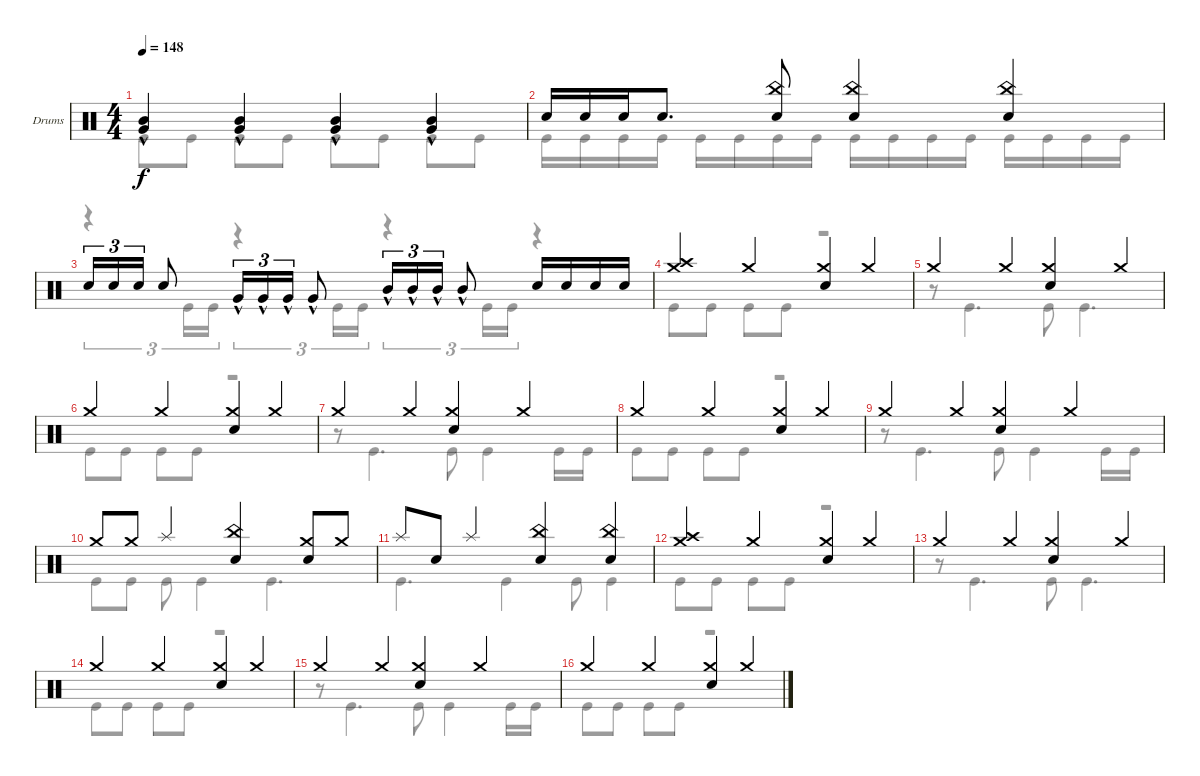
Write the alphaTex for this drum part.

\defaultSystemsLayout 4
\bracketExtendMode groupsimilarinstruments
\firstSystemTrackNameOrientation horizontal
\otherSystemsTrackNameOrientation horizontal
\track ("Drumkit" "Drums") {instrument percussion}
\staff {score}
\articulation defaults
\voice
\ts (4 4)
\tempo 148
\clef neutral
\scale
1.02648
\ks c
("Mid Tom (hit)"{hac} "Very Low Tom (hit)"{hac}).4{dy f} ("Mid Tom (hit)"{hac} "Very Low Tom (hit)"{hac}).4 ("Mid Tom (hit)"{hac} "Very Low Tom (hit)"{hac}).4 ("Mid Tom (hit)"{hac} "Very Low Tom (hit)"{hac}).4 |
\scale
0.973518 "Snare (hit) 2".16 "Snare (hit) 2".16 "Snare (hit) 2".16 "Snare (hit) 2".8{d} ("Snare (hit) 2" "China (hit)").8 ("Snare (hit) 2" "China (hit)").4 ("China (hit)" "Snare (hit) 2").4 |
\scale
1.02648 "Snare (hit) 2".16{tu (3 2)} "Snare (hit) 2".16{tu (3 2)} "Snare (hit) 2".16{tu (3 2)} "Snare (hit) 2".8 "Very Low Tom (hit)"{hac}.16{tu (3 2)} "Very Low Tom (hit)"{hac}.16{tu (3 2)} "Very Low Tom (hit)"{hac}.16{tu (3 2)} "Very Low Tom (hit)"{hac}.8 "Mid Tom (hit)"{hac}.16{tu (3 2)} "Mid Tom (hit)"{hac}.16{tu (3 2)} "Mid Tom (hit)"{hac}.16{tu (3 2)} "Mid Tom (hit)"{hac}.8 "Snare (hit) 2".16 "Snare (hit) 2".16 "Snare (hit) 2".16 "Snare (hit) 2".16 |
\scale
0.973518 ("Crash medium (hit)" "Crash high (hit)").4 "Crash medium (hit)".4 ("Crash medium (hit)" "Snare (hit) 2").4 "Crash medium (hit)".4 |
\scale
1.02648 "Crash medium (hit)".4 "Crash medium (hit)".4 ("Crash medium (hit)" "Snare (hit) 2").4 "Crash medium (hit)".4 |
\scale
0.973518 "Crash medium (hit)".4 "Crash medium (hit)".4 ("Crash medium (hit)" "Snare (hit) 2").4 "Crash medium (hit)".4 |
\scale
1.02648 "Crash medium (hit)".4 "Crash medium (hit)".4 ("Crash medium (hit)" "Snare (hit) 2").4 "Crash medium (hit)".4 |
\scale
0.973518 "Crash medium (hit)".4 "Crash medium (hit)".4 ("Crash medium (hit)" "Snare (hit) 2").4 "Crash medium (hit)".4 |
\scale
1.02648 "Crash medium (hit)".4 "Crash medium (hit)".4 ("Crash medium (hit)" "Snare (hit) 2").4 "Crash medium (hit)".4 |
\scale
0.973518 "Crash medium (hit)".8 "Crash medium (hit)".8 "Splash (hit)".4 ("Snare (hit) 2" "China (hit)").4 ("Crash medium (hit)" "Snare (hit) 2").8 "Crash medium (hit)".8 |
\scale
1.02648 "Splash (hit)".8 "Snare (hit) 2".8 "Splash (hit)".4 ("Snare (hit) 2" "China (hit)").4 ("Snare (hit) 2" "China (hit)").4 |
\scale
0.973518 ("Crash medium (hit)" "Crash high (hit)").4 "Crash medium (hit)".4 ("Crash medium (hit)" "Snare (hit) 2").4 "Crash medium (hit)".4 |
\scale
1.02648 "Crash medium (hit)".4 "Crash medium (hit)".4 ("Crash medium (hit)" "Snare (hit) 2").4 "Crash medium (hit)".4 |
\scale
0.973518 "Crash medium (hit)".4 "Crash medium (hit)".4 ("Crash medium (hit)" "Snare (hit) 2").4 "Crash medium (hit)".4 |
\scale
1.02648 "Crash medium (hit)".4 "Crash medium (hit)".4 ("Crash medium (hit)" "Snare (hit) 2").4 "Crash medium (hit)".4 |
\scale
0.973518 "Crash medium (hit)".4 "Crash medium (hit)".4 ("Crash medium (hit)" "Snare (hit) 2").4 "Crash medium (hit)".4
\voice
\clef neutral
\ottava regular
\simile none
\scale
1.02648
\ks c "Kick (hit)".8{dy f} "Kick (hit)".8 "Kick (hit)".8 "Kick (hit)".8 "Kick (hit)".8 "Kick (hit)".8 "Kick (hit)".8 "Kick (hit)".8
|
\scale
0.973518 "Kick (hit)".16 "Kick (hit)".16 "Kick (hit)".16 "Kick (hit)".16 "Kick (hit)".16 "Kick (hit)".16 "Kick (hit)".16 "Kick (hit)".16 "Kick (hit)".16 "Kick (hit)".16 "Kick (hit)".16 "Kick (hit)".16 "Kick (hit)".16 "Kick (hit)".16 "Kick (hit)".16 "Kick (hit)".16 |
\scale
1.02648 r.4{tu (3 2)} "Kick (hit)".16{tu (3 2)} "Kick (hit)".16{tu (3 2)} r.4{tu (3 2)} "Kick (hit)".16{tu (3 2)} "Kick (hit)".16{tu (3 2)} r.4{tu (3 2)} "Kick (hit)".16{tu (3 2)} "Kick (hit)".16{tu (3 2)} r.4 |
\scale
0.973518 "Kick (hit)".8 "Kick (hit)".8 "Kick (hit)".8 "Kick (hit)".8 r.2 |
\scale
1.02648 r.8 "Kick (hit)".4{d} "Kick (hit)".8 "Kick (hit)".4{d} |
\scale
0.973518 "Kick (hit)".8 "Kick (hit)".8 "Kick (hit)".8 "Kick (hit)".8 r.2 |
\scale
1.02648 r.8 "Kick (hit)".4{d} "Kick (hit)".8 "Kick (hit)".4 "Kick (hit)".16 "Kick (hit)".16 |
\scale
0.973518 "Kick (hit)".8 "Kick (hit)".8 "Kick (hit)".8 "Kick (hit)".8 r.2 |
\scale
1.02648 r.8 "Kick (hit)".4{d} "Kick (hit)".8 "Kick (hit)".4 "Kick (hit)".16 "Kick (hit)".16 |
\scale
0.973518 "Kick (hit)".8 "Kick (hit)".8 "Kick (hit)".8 "Kick (hit)".4 "Kick (hit)".4{d} |
\scale
1.02648 "Kick (hit)".4{d} "Kick (hit)".4 "Kick (hit)".8 "Kick (hit)".4 |
\scale
0.973518 "Kick (hit)".8 "Kick (hit)".8 "Kick (hit)".8 "Kick (hit)".8 r.2 |
\scale
1.02648 r.8 "Kick (hit)".4{d} "Kick (hit)".8 "Kick (hit)".4{d} |
\scale
0.973518 "Kick (hit)".8 "Kick (hit)".8 "Kick (hit)".8 "Kick (hit)".8 r.2 |
\scale
1.02648 r.8 "Kick (hit)".4{d} "Kick (hit)".8 "Kick (hit)".4 "Kick (hit)".16 "Kick (hit)".16 |
\scale
0.973518 "Kick (hit)".8 "Kick (hit)".8 "Kick (hit)".8 "Kick (hit)".8 r.2
